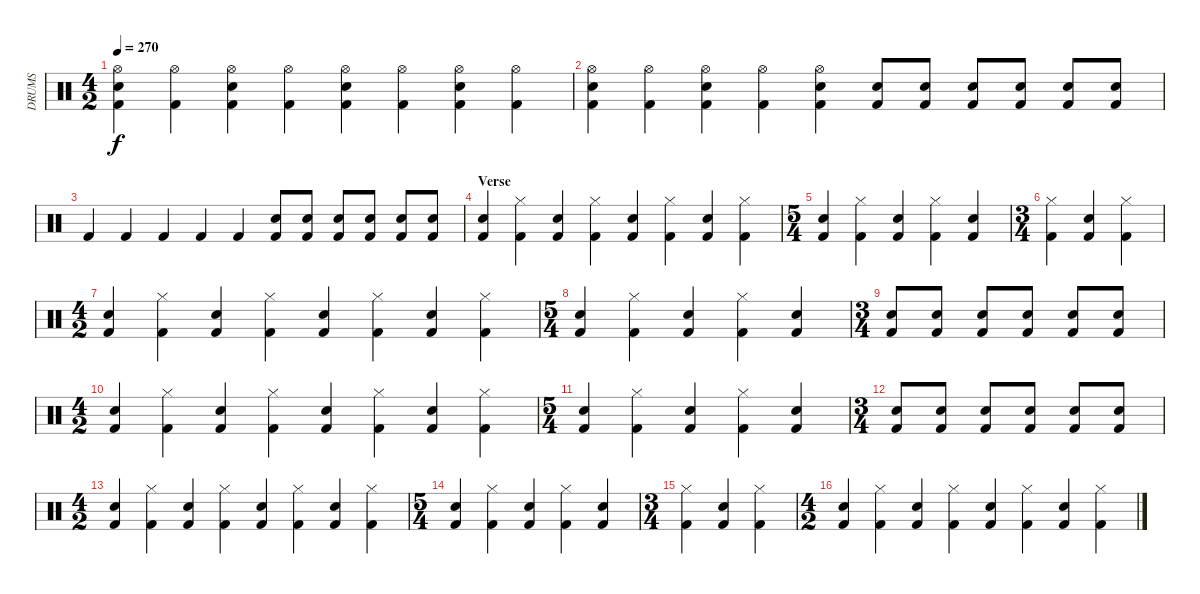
\track ("DRUMS" "DRUMS") {instrument percussion}
\staff {score}
\articulation defaults
\ts (4 2)
\tempo 270
\clef neutral
\ks c
("Hi-Hat (open)" "Snare (hit) 2" "Kick (hit) 2").4{dy f} ("Hi-Hat (open)" "Kick (hit) 2").4 ("Hi-Hat (open)" "Snare (hit) 2" "Kick (hit) 2").4 ("Hi-Hat (open)" "Kick (hit) 2").4 ("Hi-Hat (open)" "Snare (hit) 2" "Kick (hit) 2").4 ("Hi-Hat (open)" "Kick (hit) 2").4 ("Hi-Hat (open)" "Snare (hit) 2" "Kick (hit) 2").4 ("Hi-Hat (open)" "Kick (hit) 2").4 |
("Hi-Hat (open)" "Snare (hit) 2" "Kick (hit) 2").4 ("Hi-Hat (open)" "Kick (hit) 2").4 ("Hi-Hat (open)" "Snare (hit) 2" "Kick (hit) 2").4 ("Hi-Hat (open)" "Kick (hit) 2").4 ("Hi-Hat (open)" "Snare (hit) 2" "Kick (hit) 2").4 ("Snare (hit) 2" "Kick (hit) 2").8 ("Snare (hit) 2" "Kick (hit) 2").8 ("Snare (hit) 2" "Kick (hit) 2").8 ("Snare (hit) 2" "Kick (hit) 2").8 ("Snare (hit) 2" "Kick (hit) 2").8 ("Snare (hit) 2" "Kick (hit) 2").8 |
"Kick (hit) 2".4 "Kick (hit) 2".4 "Kick (hit) 2".4 "Kick (hit) 2".4 "Kick (hit) 2".4 ("Snare (hit) 2" "Kick (hit) 2").8 ("Snare (hit) 2" "Kick (hit) 2").8 ("Snare (hit) 2" "Kick (hit) 2").8 ("Snare (hit) 2" "Kick (hit) 2").8 ("Snare (hit) 2" "Kick (hit) 2").8 ("Snare (hit) 2" "Kick (hit) 2").8 |
\section ("" "Verse")
("Snare (hit) 2" "Kick (hit) 2").4 ("Hi-Hat (closed)" "Kick (hit) 2").4 ("Snare (hit) 2" "Kick (hit) 2").4 ("Hi-Hat (closed)" "Kick (hit) 2").4 ("Snare (hit) 2" "Kick (hit) 2").4 ("Hi-Hat (closed)" "Kick (hit) 2").4 ("Snare (hit) 2" "Kick (hit) 2").4 ("Hi-Hat (closed)" "Kick (hit) 2").4 |
\ts (5 4)
("Snare (hit) 2" "Kick (hit) 2").4 ("Hi-Hat (closed)" "Kick (hit) 2").4 ("Snare (hit) 2" "Kick (hit) 2").4 ("Hi-Hat (closed)" "Kick (hit) 2").4 ("Snare (hit) 2" "Kick (hit) 2").4 |
\ts (3 4)
("Hi-Hat (closed)" "Kick (hit) 2").4 ("Snare (hit) 2" "Kick (hit) 2").4 ("Hi-Hat (closed)" "Kick (hit) 2").4 |
\ts (4 2)
("Snare (hit) 2" "Kick (hit) 2").4 ("Hi-Hat (closed)" "Kick (hit) 2").4 ("Snare (hit) 2" "Kick (hit) 2").4 ("Hi-Hat (closed)" "Kick (hit) 2").4 ("Snare (hit) 2" "Kick (hit) 2").4 ("Hi-Hat (closed)" "Kick (hit) 2").4 ("Snare (hit) 2" "Kick (hit) 2").4 ("Hi-Hat (closed)" "Kick (hit) 2").4 |
\ts (5 4)
("Snare (hit) 2" "Kick (hit) 2").4 ("Hi-Hat (closed)" "Kick (hit) 2").4 ("Snare (hit) 2" "Kick (hit) 2").4 ("Hi-Hat (closed)" "Kick (hit) 2").4 ("Snare (hit) 2" "Kick (hit) 2").4 |
\ts (3 4)
("Snare (hit) 2" "Kick (hit) 2").8 ("Snare (hit) 2" "Kick (hit) 2").8 ("Snare (hit) 2" "Kick (hit) 2").8 ("Snare (hit) 2" "Kick (hit) 2").8 ("Snare (hit) 2" "Kick (hit) 2").8 ("Snare (hit) 2" "Kick (hit) 2").8 |
\ts (4 2)
("Snare (hit) 2" "Kick (hit) 2").4 ("Hi-Hat (closed)" "Kick (hit) 2").4 ("Snare (hit) 2" "Kick (hit) 2").4 ("Hi-Hat (closed)" "Kick (hit) 2").4 ("Snare (hit) 2" "Kick (hit) 2").4 ("Hi-Hat (closed)" "Kick (hit) 2").4 ("Snare (hit) 2" "Kick (hit) 2").4 ("Hi-Hat (closed)" "Kick (hit) 2").4 |
\ts (5 4)
("Snare (hit) 2" "Kick (hit) 2").4 ("Hi-Hat (closed)" "Kick (hit) 2").4 ("Snare (hit) 2" "Kick (hit) 2").4 ("Hi-Hat (closed)" "Kick (hit) 2").4 ("Snare (hit) 2" "Kick (hit) 2").4 |
\ts (3 4)
("Snare (hit) 2" "Kick (hit) 2").8 ("Snare (hit) 2" "Kick (hit) 2").8 ("Snare (hit) 2" "Kick (hit) 2").8 ("Snare (hit) 2" "Kick (hit) 2").8 ("Snare (hit) 2" "Kick (hit) 2").8 ("Snare (hit) 2" "Kick (hit) 2").8 |
\ts (4 2)
("Snare (hit) 2" "Kick (hit) 2").4 ("Hi-Hat (closed)" "Kick (hit) 2").4 ("Snare (hit) 2" "Kick (hit) 2").4 ("Hi-Hat (closed)" "Kick (hit) 2").4 ("Snare (hit) 2" "Kick (hit) 2").4 ("Hi-Hat (closed)" "Kick (hit) 2").4 ("Snare (hit) 2" "Kick (hit) 2").4 ("Hi-Hat (closed)" "Kick (hit) 2").4 |
\ts (5 4)
("Snare (hit) 2" "Kick (hit) 2").4 ("Hi-Hat (closed)" "Kick (hit) 2").4 ("Snare (hit) 2" "Kick (hit) 2").4 ("Hi-Hat (closed)" "Kick (hit) 2").4 ("Snare (hit) 2" "Kick (hit) 2").4 |
\ts (3 4)
("Hi-Hat (closed)" "Kick (hit) 2").4 ("Snare (hit) 2" "Kick (hit) 2").4 ("Hi-Hat (closed)" "Kick (hit) 2").4 |
\ts (4 2)
("Snare (hit) 2" "Kick (hit) 2").4 ("Hi-Hat (closed)" "Kick (hit) 2").4 ("Snare (hit) 2" "Kick (hit) 2").4 ("Hi-Hat (closed)" "Kick (hit) 2").4 ("Snare (hit) 2" "Kick (hit) 2").4 ("Hi-Hat (closed)" "Kick (hit) 2").4 ("Snare (hit) 2" "Kick (hit) 2").4 ("Hi-Hat (closed)" "Kick (hit) 2").4
